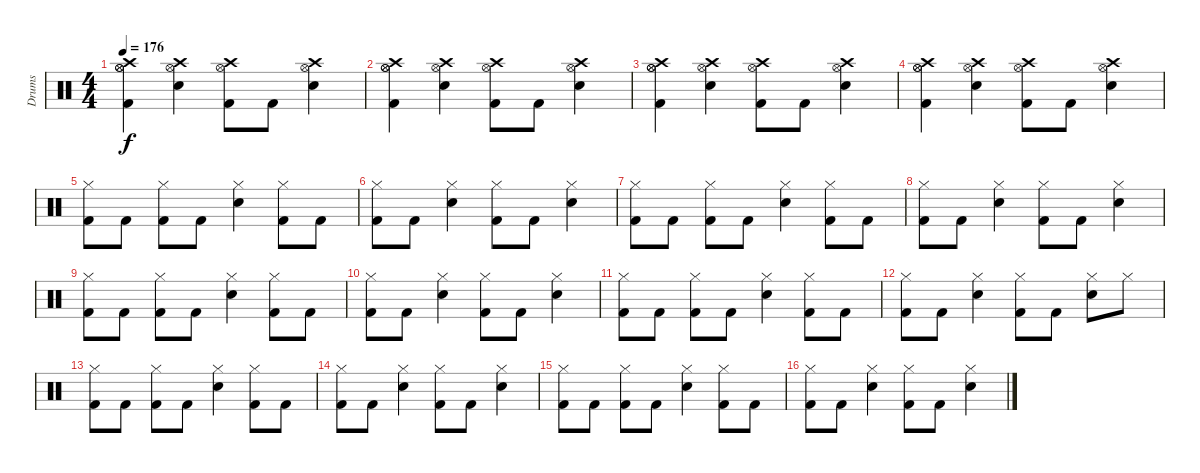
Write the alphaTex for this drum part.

\track ("Drums" "Drums") {instrument percussion}
\staff {score}
\articulation defaults
\ts (4 4)
\tempo 176
\clef neutral
\ks c
("Kick (hit) 2" "Hi-Hat (open)" "Hi-Hat (open)" "Crash high (hit)").4{dy f} ("Crash high (hit)" "Hi-Hat (open)" "Snare (hit) 2").4 ("Hi-Hat (open)" "Crash high (hit)" "Kick (hit) 2").8 "Kick (hit) 2".8 ("Hi-Hat (open)" "Crash high (hit)" "Snare (hit) 2").4 |
("Kick (hit) 2" "Hi-Hat (open)" "Hi-Hat (open)" "Crash high (hit)").4 ("Crash high (hit)" "Hi-Hat (open)" "Snare (hit) 2").4 ("Hi-Hat (open)" "Crash high (hit)" "Kick (hit) 2").8 "Kick (hit) 2".8 ("Hi-Hat (open)" "Crash high (hit)" "Snare (hit) 2").4 |
("Kick (hit) 2" "Hi-Hat (open)" "Hi-Hat (open)" "Crash high (hit)").4 ("Crash high (hit)" "Hi-Hat (open)" "Snare (hit) 2").4 ("Hi-Hat (open)" "Crash high (hit)" "Kick (hit) 2").8 "Kick (hit) 2".8 ("Hi-Hat (open)" "Crash high (hit)" "Snare (hit) 2").4 |
("Kick (hit) 2" "Hi-Hat (open)" "Hi-Hat (open)" "Crash high (hit)").4 ("Crash high (hit)" "Hi-Hat (open)" "Snare (hit) 2").4 ("Hi-Hat (open)" "Crash high (hit)" "Kick (hit) 2").8 "Kick (hit) 2".8 ("Hi-Hat (open)" "Crash high (hit)" "Snare (hit) 2").4 |
("Hi-Hat (closed)" "Kick (hit) 2").8 "Kick (hit) 2".8 ("Hi-Hat (closed)" "Kick (hit) 2").8 "Kick (hit) 2".8 ("Hi-Hat (closed)" "Snare (hit) 2").4 ("Hi-Hat (closed)" "Kick (hit) 2").8 "Kick (hit) 2".8 |
("Hi-Hat (closed)" "Kick (hit) 2").8 "Kick (hit) 2".8 ("Hi-Hat (closed)" "Snare (hit) 2").4 ("Hi-Hat (closed)" "Kick (hit) 2").8 "Kick (hit) 2".8 ("Hi-Hat (closed)" "Snare (hit) 2").4 |
("Hi-Hat (closed)" "Kick (hit) 2").8 "Kick (hit) 2".8 ("Hi-Hat (closed)" "Kick (hit) 2").8 "Kick (hit) 2".8 ("Hi-Hat (closed)" "Snare (hit) 2").4 ("Hi-Hat (closed)" "Kick (hit) 2").8 "Kick (hit) 2".8 |
("Hi-Hat (closed)" "Kick (hit) 2").8 "Kick (hit) 2".8 ("Hi-Hat (closed)" "Snare (hit) 2").4 ("Hi-Hat (closed)" "Kick (hit) 2").8 "Kick (hit) 2".8 ("Hi-Hat (closed)" "Snare (hit) 2").4 |
("Hi-Hat (closed)" "Kick (hit) 2").8 "Kick (hit) 2".8 ("Hi-Hat (closed)" "Kick (hit) 2").8 "Kick (hit) 2".8 ("Hi-Hat (closed)" "Snare (hit) 2").4 ("Hi-Hat (closed)" "Kick (hit) 2").8 "Kick (hit) 2".8 |
("Hi-Hat (closed)" "Kick (hit) 2").8 "Kick (hit) 2".8 ("Hi-Hat (closed)" "Snare (hit) 2").4 ("Hi-Hat (closed)" "Kick (hit) 2").8 "Kick (hit) 2".8 ("Hi-Hat (closed)" "Snare (hit) 2").4 |
("Hi-Hat (closed)" "Kick (hit) 2").8 "Kick (hit) 2".8 ("Hi-Hat (closed)" "Kick (hit) 2").8 "Kick (hit) 2".8 ("Hi-Hat (closed)" "Snare (hit) 2").4 ("Hi-Hat (closed)" "Kick (hit) 2").8 "Kick (hit) 2".8 |
("Hi-Hat (closed)" "Kick (hit) 2").8 "Kick (hit) 2".8 ("Hi-Hat (closed)" "Snare (hit) 2").4 ("Hi-Hat (closed)" "Kick (hit) 2").8 "Kick (hit) 2".8 ("Hi-Hat (closed)" "Snare (hit) 2").8 "Hi-Hat (closed)".8 |
("Hi-Hat (closed)" "Kick (hit) 2").8 "Kick (hit) 2".8 ("Hi-Hat (closed)" "Kick (hit) 2").8 "Kick (hit) 2".8 ("Hi-Hat (closed)" "Snare (hit) 2").4 ("Hi-Hat (closed)" "Kick (hit) 2").8 "Kick (hit) 2".8 |
("Hi-Hat (closed)" "Kick (hit) 2").8 "Kick (hit) 2".8 ("Hi-Hat (closed)" "Snare (hit) 2").4 ("Hi-Hat (closed)" "Kick (hit) 2").8 "Kick (hit) 2".8 ("Hi-Hat (closed)" "Snare (hit) 2").4 |
("Hi-Hat (closed)" "Kick (hit) 2").8 "Kick (hit) 2".8 ("Hi-Hat (closed)" "Kick (hit) 2").8 "Kick (hit) 2".8 ("Hi-Hat (closed)" "Snare (hit) 2").4 ("Hi-Hat (closed)" "Kick (hit) 2").8 "Kick (hit) 2".8 |
("Hi-Hat (closed)" "Kick (hit) 2").8 "Kick (hit) 2".8 ("Hi-Hat (closed)" "Snare (hit) 2").4 ("Hi-Hat (closed)" "Kick (hit) 2").8 "Kick (hit) 2".8 ("Hi-Hat (closed)" "Snare (hit) 2").4
